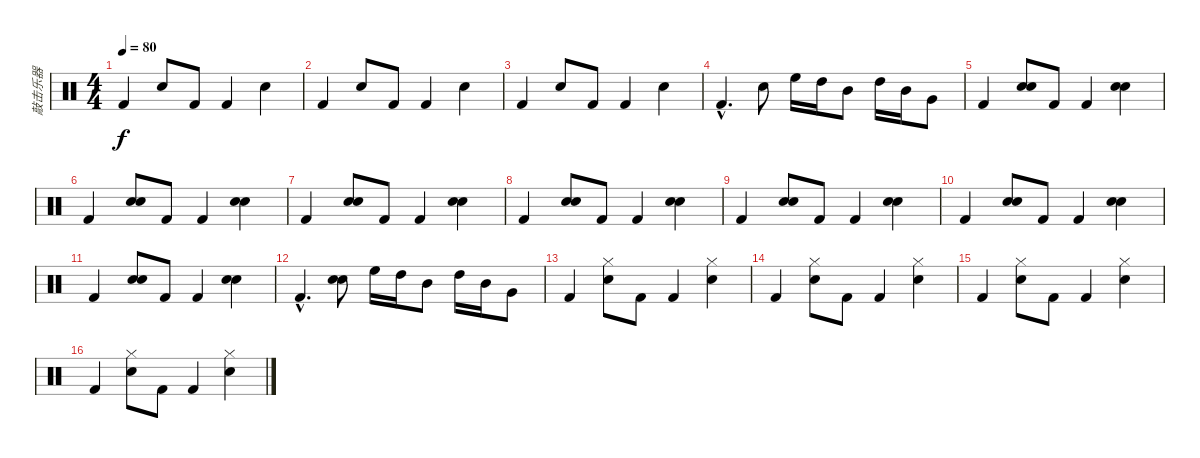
\track ("敲击乐器" "敲击乐器") {instrument percussion}
\staff {score}
\articulation defaults
\ts (4 4)
\tempo 80
\clef neutral
\ks c "Kick (hit) 2".4{dy f} "Hand Clap (hit)".8 "Kick (hit) 2".8 "Kick (hit) 2".4 "Hand Clap (hit)".4
|
"Kick (hit) 2".4 "Hand Clap (hit)".8 "Kick (hit) 2".8 "Kick (hit) 2".4 "Hand Clap (hit)".4 |
"Kick (hit) 2".4 "Hand Clap (hit)".8 "Kick (hit) 2".8 "Kick (hit) 2".4 "Hand Clap (hit)".4 |
"Kick (hit) 2"{hac}.4{d} "Hand Clap (hit)".8 "High Floor Tom (hit)".16 "High Tom (hit)".16 "Mid Tom (hit)".8 "High Tom (hit)".16 "Mid Tom (hit)".16 "Very Low Tom (hit)".8 |
"Kick (hit) 2".4 ("Hand Clap (hit)" "Electric Snare (hit)").8 "Kick (hit) 2".8 "Kick (hit) 2".4 ("Hand Clap (hit)" "Electric Snare (hit)").4 |
"Kick (hit) 2".4 ("Hand Clap (hit)" "Electric Snare (hit)").8 "Kick (hit) 2".8 "Kick (hit) 2".4 ("Hand Clap (hit)" "Electric Snare (hit)").4 |
"Kick (hit) 2".4 ("Hand Clap (hit)" "Electric Snare (hit)").8 "Kick (hit) 2".8 "Kick (hit) 2".4 ("Hand Clap (hit)" "Electric Snare (hit)").4 |
"Kick (hit) 2".4 ("Hand Clap (hit)" "Electric Snare (hit)").8 "Kick (hit) 2".8 "Kick (hit) 2".4 ("Hand Clap (hit)" "Electric Snare (hit)").4 |
"Kick (hit) 2".4 ("Hand Clap (hit)" "Electric Snare (hit)").8 "Kick (hit) 2".8 "Kick (hit) 2".4 ("Hand Clap (hit)" "Electric Snare (hit)").4 |
"Kick (hit) 2".4 ("Hand Clap (hit)" "Electric Snare (hit)").8 "Kick (hit) 2".8 "Kick (hit) 2".4 ("Hand Clap (hit)" "Electric Snare (hit)").4 |
"Kick (hit) 2".4 ("Hand Clap (hit)" "Electric Snare (hit)").8 "Kick (hit) 2".8 "Kick (hit) 2".4 ("Hand Clap (hit)" "Electric Snare (hit)").4 |
"Kick (hit) 2"{hac}.4{d} ("Hand Clap (hit)" "Electric Snare (hit)").8 "High Floor Tom (hit)".16 "High Tom (hit)".16 "Mid Tom (hit)".8 "High Tom (hit)".16 "Mid Tom (hit)".16 "Very Low Tom (hit)".8 |
"Kick (hit) 2".4 ("Hand Clap (hit)" "Hi-Hat (closed)").8 "Kick (hit) 2".8 "Kick (hit) 2".4 ("Hand Clap (hit)" "Hi-Hat (closed)").4 |
"Kick (hit) 2".4 ("Hand Clap (hit)" "Hi-Hat (closed)").8 "Kick (hit) 2".8 "Kick (hit) 2".4 ("Hand Clap (hit)" "Hi-Hat (closed)").4 |
"Kick (hit) 2".4 ("Hand Clap (hit)" "Hi-Hat (closed)").8 "Kick (hit) 2".8 "Kick (hit) 2".4 ("Hand Clap (hit)" "Hi-Hat (closed)").4 |
"Kick (hit) 2".4 ("Hand Clap (hit)" "Hi-Hat (closed)").8 "Kick (hit) 2".8 "Kick (hit) 2".4 ("Hand Clap (hit)" "Hi-Hat (closed)").4
